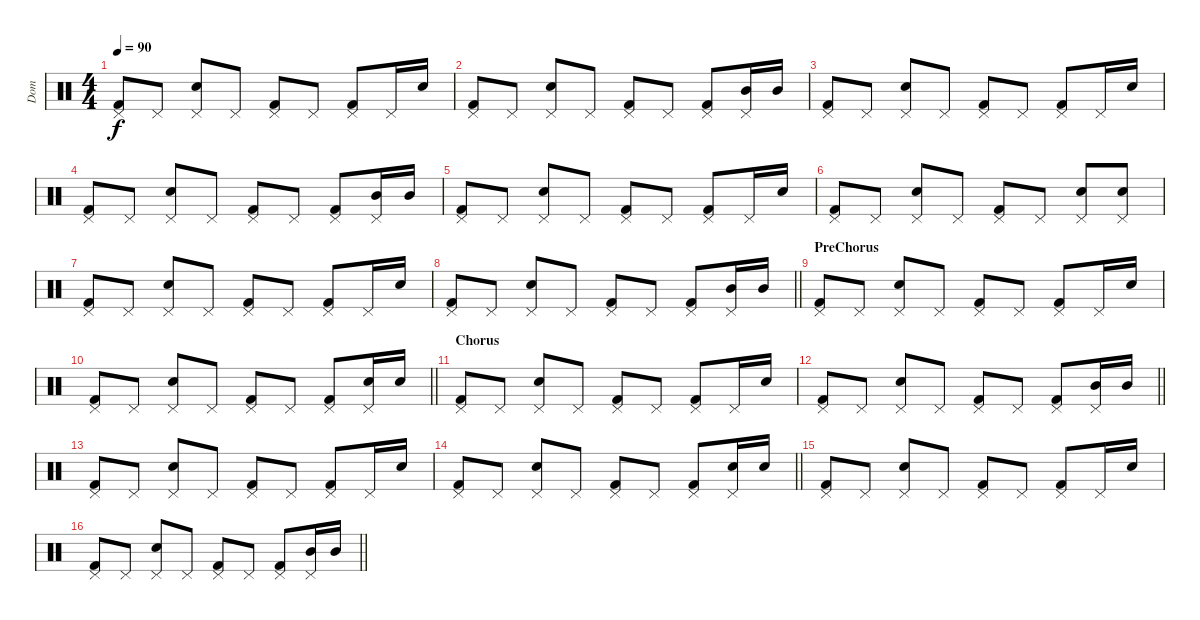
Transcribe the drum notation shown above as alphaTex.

\track ("Dom" "Dom") {instrument percussion}
\staff {score}
\articulation defaults
\ts (4 4)
\tempo 90
\clef neutral
\ks c
("Pedal Hi-Hat (hit)" "Kick (hit) 2").8{dy f} "Pedal Hi-Hat (hit)".8 ("Pedal Hi-Hat (hit)" "Electric Snare (hit)").8 "Pedal Hi-Hat (hit)".8 ("Pedal Hi-Hat (hit)" "Kick (hit) 2").8 "Pedal Hi-Hat (hit)".8 ("Pedal Hi-Hat (hit)" "Kick (hit) 2").8 "Pedal Hi-Hat (hit)".16 "Electric Snare (hit)".16 |
("Pedal Hi-Hat (hit)" "Kick (hit) 2").8 "Pedal Hi-Hat (hit)".8 ("Pedal Hi-Hat (hit)" "Electric Snare (hit)").8 "Pedal Hi-Hat (hit)".8 ("Pedal Hi-Hat (hit)" "Kick (hit) 2").8 "Pedal Hi-Hat (hit)".8 ("Pedal Hi-Hat (hit)" "Kick (hit) 2").8 ("Pedal Hi-Hat (hit)" "Mid Tom (hit)").16 "Mid Tom (hit)".16 |
("Pedal Hi-Hat (hit)" "Kick (hit) 2").8 "Pedal Hi-Hat (hit)".8 ("Pedal Hi-Hat (hit)" "Electric Snare (hit)").8 "Pedal Hi-Hat (hit)".8 ("Pedal Hi-Hat (hit)" "Kick (hit) 2").8 "Pedal Hi-Hat (hit)".8 ("Pedal Hi-Hat (hit)" "Kick (hit) 2").8 "Pedal Hi-Hat (hit)".16 "Electric Snare (hit)".16 |
("Pedal Hi-Hat (hit)" "Kick (hit) 2").8 "Pedal Hi-Hat (hit)".8 ("Pedal Hi-Hat (hit)" "Electric Snare (hit)").8 "Pedal Hi-Hat (hit)".8 ("Pedal Hi-Hat (hit)" "Kick (hit) 2").8 "Pedal Hi-Hat (hit)".8 ("Pedal Hi-Hat (hit)" "Kick (hit) 2").8 ("Pedal Hi-Hat (hit)" "Mid Tom (hit)").16 "Mid Tom (hit)".16 |
("Pedal Hi-Hat (hit)" "Kick (hit) 2").8 "Pedal Hi-Hat (hit)".8 ("Pedal Hi-Hat (hit)" "Electric Snare (hit)").8 "Pedal Hi-Hat (hit)".8 ("Pedal Hi-Hat (hit)" "Kick (hit) 2").8 "Pedal Hi-Hat (hit)".8 ("Pedal Hi-Hat (hit)" "Kick (hit) 2").8 "Pedal Hi-Hat (hit)".16 "Electric Snare (hit)".16 |
("Pedal Hi-Hat (hit)" "Kick (hit) 2").8 "Pedal Hi-Hat (hit)".8 ("Pedal Hi-Hat (hit)" "Electric Snare (hit)").8 "Pedal Hi-Hat (hit)".8 ("Pedal Hi-Hat (hit)" "Kick (hit) 2").8 "Pedal Hi-Hat (hit)".8 ("Pedal Hi-Hat (hit)" "Electric Snare (hit)").8 ("Pedal Hi-Hat (hit)" "Electric Snare (hit)").8 |
("Pedal Hi-Hat (hit)" "Kick (hit) 2").8 "Pedal Hi-Hat (hit)".8 ("Pedal Hi-Hat (hit)" "Electric Snare (hit)").8 "Pedal Hi-Hat (hit)".8 ("Pedal Hi-Hat (hit)" "Kick (hit) 2").8 "Pedal Hi-Hat (hit)".8 ("Pedal Hi-Hat (hit)" "Kick (hit) 2").8 "Pedal Hi-Hat (hit)".16 "Electric Snare (hit)".16 |
\barLineRight lightlight
("Pedal Hi-Hat (hit)" "Kick (hit) 2").8 "Pedal Hi-Hat (hit)".8 ("Pedal Hi-Hat (hit)" "Electric Snare (hit)").8 "Pedal Hi-Hat (hit)".8 ("Pedal Hi-Hat (hit)" "Kick (hit) 2").8 "Pedal Hi-Hat (hit)".8 ("Pedal Hi-Hat (hit)" "Kick (hit) 2").8 ("Pedal Hi-Hat (hit)" "Mid Tom (hit)").16 "Mid Tom (hit)".16 |
\section ("" "PreChorus")
("Pedal Hi-Hat (hit)" "Kick (hit) 2").8 "Pedal Hi-Hat (hit)".8 ("Pedal Hi-Hat (hit)" "Electric Snare (hit)").8 "Pedal Hi-Hat (hit)".8 ("Pedal Hi-Hat (hit)" "Kick (hit) 2").8 "Pedal Hi-Hat (hit)".8 ("Pedal Hi-Hat (hit)" "Kick (hit) 2").8 "Pedal Hi-Hat (hit)".16 "Electric Snare (hit)".16 |
\barLineRight lightlight
("Pedal Hi-Hat (hit)" "Kick (hit) 2").8 "Pedal Hi-Hat (hit)".8 ("Pedal Hi-Hat (hit)" "Electric Snare (hit)").8 "Pedal Hi-Hat (hit)".8 ("Pedal Hi-Hat (hit)" "Kick (hit) 2").8 "Pedal Hi-Hat (hit)".8 ("Pedal Hi-Hat (hit)" "Kick (hit) 2").8 ("Pedal Hi-Hat (hit)" "Electric Snare (hit)").16 "Electric Snare (hit)".16 |
\section ("" "Chorus")
("Pedal Hi-Hat (hit)" "Kick (hit) 2").8 "Pedal Hi-Hat (hit)".8 ("Pedal Hi-Hat (hit)" "Electric Snare (hit)").8 "Pedal Hi-Hat (hit)".8 ("Pedal Hi-Hat (hit)" "Kick (hit) 2").8 "Pedal Hi-Hat (hit)".8 ("Pedal Hi-Hat (hit)" "Kick (hit) 2").8 "Pedal Hi-Hat (hit)".16 "Electric Snare (hit)".16 |
\barLineRight lightlight
("Pedal Hi-Hat (hit)" "Kick (hit) 2").8 "Pedal Hi-Hat (hit)".8 ("Pedal Hi-Hat (hit)" "Electric Snare (hit)").8 "Pedal Hi-Hat (hit)".8 ("Pedal Hi-Hat (hit)" "Kick (hit) 2").8 "Pedal Hi-Hat (hit)".8 ("Pedal Hi-Hat (hit)" "Kick (hit) 2").8 ("Pedal Hi-Hat (hit)" "Mid Tom (hit)").16 "Mid Tom (hit)".16 |
("Pedal Hi-Hat (hit)" "Kick (hit) 2").8 "Pedal Hi-Hat (hit)".8 ("Pedal Hi-Hat (hit)" "Electric Snare (hit)").8 "Pedal Hi-Hat (hit)".8 ("Pedal Hi-Hat (hit)" "Kick (hit) 2").8 "Pedal Hi-Hat (hit)".8 ("Pedal Hi-Hat (hit)" "Kick (hit) 2").8 "Pedal Hi-Hat (hit)".16 "Electric Snare (hit)".16 |
\barLineRight lightlight
("Pedal Hi-Hat (hit)" "Kick (hit) 2").8 "Pedal Hi-Hat (hit)".8 ("Pedal Hi-Hat (hit)" "Electric Snare (hit)").8 "Pedal Hi-Hat (hit)".8 ("Pedal Hi-Hat (hit)" "Kick (hit) 2").8 "Pedal Hi-Hat (hit)".8 ("Pedal Hi-Hat (hit)" "Kick (hit) 2").8 ("Pedal Hi-Hat (hit)" "Electric Snare (hit)").16 "Electric Snare (hit)".16 |
("Pedal Hi-Hat (hit)" "Kick (hit) 2").8 "Pedal Hi-Hat (hit)".8 ("Pedal Hi-Hat (hit)" "Electric Snare (hit)").8 "Pedal Hi-Hat (hit)".8 ("Pedal Hi-Hat (hit)" "Kick (hit) 2").8 "Pedal Hi-Hat (hit)".8 ("Pedal Hi-Hat (hit)" "Kick (hit) 2").8 "Pedal Hi-Hat (hit)".16 "Electric Snare (hit)".16 |
\barLineRight lightlight
("Pedal Hi-Hat (hit)" "Kick (hit) 2").8 "Pedal Hi-Hat (hit)".8 ("Pedal Hi-Hat (hit)" "Electric Snare (hit)").8 "Pedal Hi-Hat (hit)".8 ("Pedal Hi-Hat (hit)" "Kick (hit) 2").8 "Pedal Hi-Hat (hit)".8 ("Pedal Hi-Hat (hit)" "Kick (hit) 2").8 ("Pedal Hi-Hat (hit)" "Mid Tom (hit)").16 "Mid Tom (hit)".16
